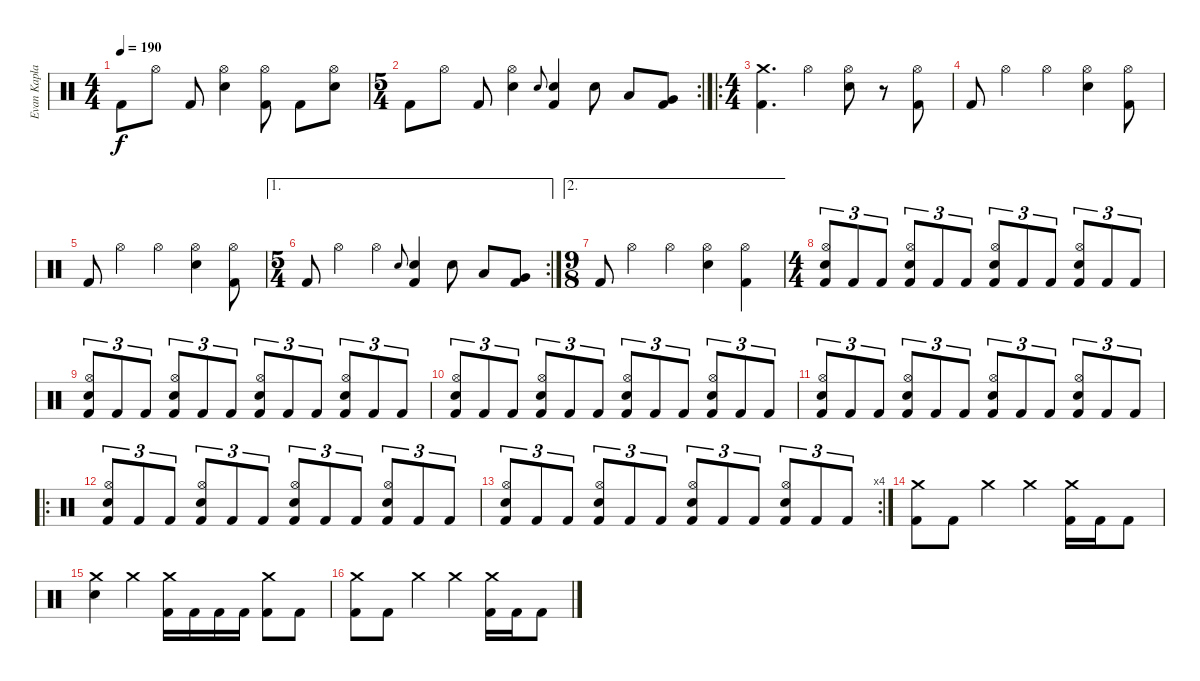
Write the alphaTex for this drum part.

\track ("Evan Kaplan (Drums)" "Evan Kapla") {instrument percussion}
\staff {score}
\articulation defaults
\ts (4 4)
\tempo 190
\clef neutral
\ks c "Kick (hit) 2".8{dy f} "Hi-Hat (open)".8 "Kick (hit) 2".8
("Hi-Hat (open)" "Electric Snare (hit)").4 ("Hi-Hat (open)" "Kick (hit) 2").8 "Kick (hit) 2".8 ("Hi-Hat (open)" "Electric Snare (hit)").8 |
\rc 2
\ts (5 4)
"Kick (hit) 2".8 "Hi-Hat (open)".8 "Kick (hit) 2".8 ("Hi-Hat (open)" "Electric Snare (hit)").4 "Electric Snare (hit)".8{gr onbeat} ("Electric Snare (hit)" "Kick (hit) 2").4 "Electric Snare (hit)".8 "Low Tom (hit)".8 ("Very Low Tom (hit)" "Kick (hit) 2").8 |
\ro
\ts (4 4)
("Crash medium (hit)" "Kick (hit) 2").4{d} "Hi-Hat (open)".4 ("Hi-Hat (open)" "Electric Snare (hit)").8 r.8 ("Hi-Hat (open)" "Kick (hit) 2").8 |
"Kick (hit) 2".8 "Hi-Hat (open)".4 "Hi-Hat (open)".4 ("Hi-Hat (open)" "Electric Snare (hit)").4 ("Hi-Hat (open)" "Kick (hit) 2").8 |
"Kick (hit) 2".8 "Hi-Hat (open)".4 "Hi-Hat (open)".4 ("Hi-Hat (open)" "Electric Snare (hit)").4 ("Hi-Hat (open)" "Kick (hit) 2").8 |
\ae 1
\rc 2
\ts (5 4)
"Kick (hit) 2".8 "Hi-Hat (open)".4 "Hi-Hat (open)".4 "Electric Snare (hit)".8{gr onbeat} ("Electric Snare (hit)" "Kick (hit) 2").4 "Electric Snare (hit)".8 "Low Tom (hit)".8 ("Very Low Tom (hit)" "Kick (hit) 2").8 |
\ae 2
\ts (9 8)
"Kick (hit) 2".8 "Hi-Hat (open)".4 "Hi-Hat (open)".4 ("Hi-Hat (open)" "Electric Snare (hit)").4 ("Hi-Hat (open)" "Kick (hit) 2").4 |
\ts (4 4)
("Hi-Hat (open)" "Electric Snare (hit)" "Kick (hit) 2").8{tu (3 2)} "Kick (hit) 2".8{tu (3 2)} "Kick (hit) 2".8{tu (3 2)} ("Hi-Hat (open)" "Electric Snare (hit)" "Kick (hit) 2").8{tu (3 2)} "Kick (hit) 2".8{tu (3 2)} "Kick (hit) 2".8{tu (3 2)} ("Hi-Hat (open)" "Electric Snare (hit)" "Kick (hit) 2").8{tu (3 2)} "Kick (hit) 2".8{tu (3 2)} "Kick (hit) 2".8{tu (3 2)} ("Hi-Hat (open)" "Electric Snare (hit)" "Kick (hit) 2").8{tu (3 2)} "Kick (hit) 2".8{tu (3 2)} "Kick (hit) 2".8{tu (3 2)} |
("Hi-Hat (open)" "Electric Snare (hit)" "Kick (hit) 2").8{tu (3 2)} "Kick (hit) 2".8{tu (3 2)} "Kick (hit) 2".8{tu (3 2)} ("Hi-Hat (open)" "Electric Snare (hit)" "Kick (hit) 2").8{tu (3 2)} "Kick (hit) 2".8{tu (3 2)} "Kick (hit) 2".8{tu (3 2)} ("Hi-Hat (open)" "Electric Snare (hit)" "Kick (hit) 2").8{tu (3 2)} "Kick (hit) 2".8{tu (3 2)} "Kick (hit) 2".8{tu (3 2)} ("Hi-Hat (open)" "Electric Snare (hit)" "Kick (hit) 2").8{tu (3 2)} "Kick (hit) 2".8{tu (3 2)} "Kick (hit) 2".8{tu (3 2)} |
("Hi-Hat (open)" "Electric Snare (hit)" "Kick (hit) 2").8{tu (3 2)} "Kick (hit) 2".8{tu (3 2)} "Kick (hit) 2".8{tu (3 2)} ("Hi-Hat (open)" "Electric Snare (hit)" "Kick (hit) 2").8{tu (3 2)} "Kick (hit) 2".8{tu (3 2)} "Kick (hit) 2".8{tu (3 2)} ("Hi-Hat (open)" "Electric Snare (hit)" "Kick (hit) 2").8{tu (3 2)} "Kick (hit) 2".8{tu (3 2)} "Kick (hit) 2".8{tu (3 2)} ("Hi-Hat (open)" "Electric Snare (hit)" "Kick (hit) 2").8{tu (3 2)} "Kick (hit) 2".8{tu (3 2)} "Kick (hit) 2".8{tu (3 2)} |
("Hi-Hat (open)" "Electric Snare (hit)" "Kick (hit) 2").8{tu (3 2)} "Kick (hit) 2".8{tu (3 2)} "Kick (hit) 2".8{tu (3 2)} ("Hi-Hat (open)" "Electric Snare (hit)" "Kick (hit) 2").8{tu (3 2)} "Kick (hit) 2".8{tu (3 2)} "Kick (hit) 2".8{tu (3 2)} ("Hi-Hat (open)" "Electric Snare (hit)" "Kick (hit) 2").8{tu (3 2)} "Kick (hit) 2".8{tu (3 2)} "Kick (hit) 2".8{tu (3 2)} ("Hi-Hat (open)" "Electric Snare (hit)" "Kick (hit) 2").8{tu (3 2)} "Kick (hit) 2".8{tu (3 2)} "Kick (hit) 2".8{tu (3 2)} |
\ro
("Hi-Hat (open)" "Electric Snare (hit)" "Kick (hit) 2").8{tu (3 2)} "Kick (hit) 2".8{tu (3 2)} "Kick (hit) 2".8{tu (3 2)} ("Hi-Hat (open)" "Electric Snare (hit)" "Kick (hit) 2").8{tu (3 2)} "Kick (hit) 2".8{tu (3 2)} "Kick (hit) 2".8{tu (3 2)} ("Hi-Hat (open)" "Electric Snare (hit)" "Kick (hit) 2").8{tu (3 2)} "Kick (hit) 2".8{tu (3 2)} "Kick (hit) 2".8{tu (3 2)} ("Hi-Hat (open)" "Electric Snare (hit)" "Kick (hit) 2").8{tu (3 2)} "Kick (hit) 2".8{tu (3 2)} "Kick (hit) 2".8{tu (3 2)} |
\rc 4
("Hi-Hat (open)" "Electric Snare (hit)" "Kick (hit) 2").8{tu (3 2)} "Kick (hit) 2".8{tu (3 2)} "Kick (hit) 2".8{tu (3 2)} ("Hi-Hat (open)" "Electric Snare (hit)" "Kick (hit) 2").8{tu (3 2)} "Kick (hit) 2".8{tu (3 2)} "Kick (hit) 2".8{tu (3 2)} ("Hi-Hat (open)" "Electric Snare (hit)" "Kick (hit) 2").8{tu (3 2)} "Kick (hit) 2".8{tu (3 2)} "Kick (hit) 2".8{tu (3 2)} ("Hi-Hat (open)" "Electric Snare (hit)" "Kick (hit) 2").8{tu (3 2)} "Kick (hit) 2".8{tu (3 2)} "Kick (hit) 2".8{tu (3 2)} |
("Crash medium (hit)" "Kick (hit) 2").8 "Kick (hit) 2".8 "Crash medium (hit)".4 "Crash medium (hit)".4 ("Crash medium (hit)" "Kick (hit) 2").16 "Kick (hit) 2".16 "Kick (hit) 2".8 |
("Crash medium (hit)" "Electric Snare (hit)").4 "Crash medium (hit)".4 ("Crash medium (hit)" "Kick (hit) 2").16 "Kick (hit) 2".16 "Kick (hit) 2".16 "Kick (hit) 2".16 ("Crash medium (hit)" "Kick (hit) 2").8 "Kick (hit) 2".8 |
("Crash medium (hit)" "Kick (hit) 2").8 "Kick (hit) 2".8 "Crash medium (hit)".4 "Crash medium (hit)".4 ("Crash medium (hit)" "Kick (hit) 2").16 "Kick (hit) 2".16 "Kick (hit) 2".8
